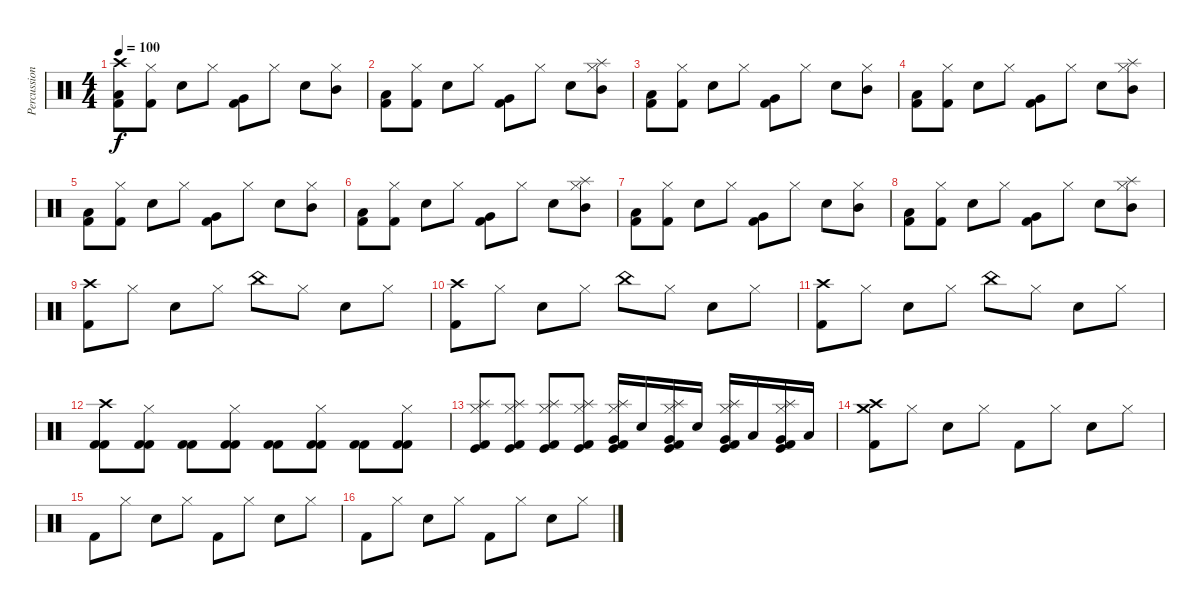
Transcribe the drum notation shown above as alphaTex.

\track ("Percussion" "Percussion") {instrument percussion}
\staff {score}
\articulation defaults
\ts (4 4)
\tempo 100
\clef neutral
\ks c
("Kick (hit) 2" "Low Tom (hit)" "Crash high (hit)").8{dy f} ("Kick (hit) 2" "Hi-Hat (closed)").8 "Electric Snare (hit)".8 "Hi-Hat (closed)".8 ("Kick (hit) 2" "Very Low Tom (hit)").8 "Hi-Hat (closed)".8 "Electric Snare (hit)".8 ("Mid Tom (hit)" "Hi-Hat (closed)").8 |
("Kick (hit) 2" "Low Tom (hit)").8 ("Kick (hit) 2" "Hi-Hat (closed)").8 "Electric Snare (hit)".8 "Hi-Hat (closed)".8 ("Kick (hit) 2" "Very Low Tom (hit)").8 "Hi-Hat (closed)".8 "Electric Snare (hit)".8 ("Mid Tom (hit)" "Hi-Hat (closed)" "Splash (hit)").8 |
("Kick (hit) 2" "Low Tom (hit)").8 ("Kick (hit) 2" "Hi-Hat (closed)").8 "Electric Snare (hit)".8 "Hi-Hat (closed)".8 ("Kick (hit) 2" "Very Low Tom (hit)").8 "Hi-Hat (closed)".8 "Electric Snare (hit)".8 ("Mid Tom (hit)" "Hi-Hat (closed)").8 |
("Kick (hit) 2" "Low Tom (hit)").8 ("Kick (hit) 2" "Hi-Hat (closed)").8 "Electric Snare (hit)".8 "Hi-Hat (closed)".8 ("Kick (hit) 2" "Very Low Tom (hit)").8 "Hi-Hat (closed)".8 "Electric Snare (hit)".8 ("Mid Tom (hit)" "Hi-Hat (closed)" "Splash (hit)").8 |
("Kick (hit) 2" "Low Tom (hit)").8 ("Kick (hit) 2" "Hi-Hat (closed)").8 "Electric Snare (hit)".8 "Hi-Hat (closed)".8 ("Kick (hit) 2" "Very Low Tom (hit)").8 "Hi-Hat (closed)".8 "Electric Snare (hit)".8 ("Mid Tom (hit)" "Hi-Hat (closed)").8 |
("Kick (hit) 2" "Low Tom (hit)").8 ("Kick (hit) 2" "Hi-Hat (closed)").8 "Electric Snare (hit)".8 "Hi-Hat (closed)".8 ("Kick (hit) 2" "Very Low Tom (hit)").8 "Hi-Hat (closed)".8 "Electric Snare (hit)".8 ("Mid Tom (hit)" "Hi-Hat (closed)" "Splash (hit)").8 |
("Kick (hit) 2" "Low Tom (hit)").8 ("Kick (hit) 2" "Hi-Hat (closed)").8 "Electric Snare (hit)".8 "Hi-Hat (closed)".8 ("Kick (hit) 2" "Very Low Tom (hit)").8 "Hi-Hat (closed)".8 "Electric Snare (hit)".8 ("Mid Tom (hit)" "Hi-Hat (closed)").8 |
("Kick (hit) 2" "Low Tom (hit)").8 ("Kick (hit) 2" "Hi-Hat (closed)").8 "Electric Snare (hit)".8 "Hi-Hat (closed)".8 ("Kick (hit) 2" "Very Low Tom (hit)").8 "Hi-Hat (closed)".8 "Electric Snare (hit)".8 ("Mid Tom (hit)" "Hi-Hat (closed)" "Splash (hit)").8 |
("Kick (hit) 2" "Crash high (hit)").8 "Hi-Hat (closed)".8 "Electric Snare (hit)".8 "Hi-Hat (closed)".8 "China (hit)".8 "Hi-Hat (closed)".8 "Electric Snare (hit)".8 "Hi-Hat (closed)".8 |
("Kick (hit) 2" "Crash high (hit)").8 "Hi-Hat (closed)".8 "Electric Snare (hit)".8 "Hi-Hat (closed)".8 "China (hit)".8 "Hi-Hat (closed)".8 "Electric Snare (hit)".8 "Hi-Hat (closed)".8 |
("Kick (hit) 2" "Crash high (hit)").8 "Hi-Hat (closed)".8 "Electric Snare (hit)".8 "Hi-Hat (closed)".8 "China (hit)".8 "Hi-Hat (closed)".8 "Electric Snare (hit)".8 "Hi-Hat (closed)".8 |
("Kick (hit) 2" "Kick (hit) 2" "Crash high (hit)").8 ("Kick (hit) 2" "Kick (hit) 2" "Hi-Hat (closed)").8 ("Kick (hit) 2" "Kick (hit) 2").8 ("Kick (hit) 2" "Kick (hit) 2" "Hi-Hat (closed)").8 ("Kick (hit) 2" "Kick (hit) 2").8 ("Kick (hit) 2" "Kick (hit) 2" "Hi-Hat (closed)").8 ("Kick (hit) 2" "Kick (hit) 2").8 ("Kick (hit) 2" "Kick (hit) 2" "Hi-Hat (closed)").8 |
("Kick (hit)" "Kick (hit) 2" "Hi-Hat (closed)" "Splash (hit)").8 ("Kick (hit)" "Kick (hit) 2" "Hi-Hat (closed)" "Splash (hit)").8 ("Kick (hit)" "Kick (hit) 2" "Hi-Hat (closed)" "Splash (hit)").8 ("Kick (hit)" "Kick (hit) 2" "Hi-Hat (closed)" "Splash (hit)").8 ("Kick (hit)" "Kick (hit) 2" "Hi-Hat (closed)" "Splash (hit)" "Very Low Tom (hit)").16 "Electric Snare (hit)".16 ("Kick (hit)" "Kick (hit) 2" "Hi-Hat (closed)" "Splash (hit)" "Very Low Tom (hit)").16 "Electric Snare (hit)".16 ("Kick (hit)" "Kick (hit) 2" "Hi-Hat (closed)" "Splash (hit)" "Very Low Tom (hit)").16 "Low Floor Tom (hit)".16 ("Kick (hit)" "Kick (hit) 2" "Hi-Hat (closed)" "Splash (hit)" "Very Low Tom (hit)").16 "Low Floor Tom (hit)".16 |
("Kick (hit) 2" "Crash high (hit)" "Crash medium (hit)").8 "Hi-Hat (closed)".8 "Electric Snare (hit)".8 "Hi-Hat (closed)".8 "Kick (hit) 2".8 "Hi-Hat (closed)".8 "Electric Snare (hit)".8 "Hi-Hat (closed)".8 |
"Kick (hit) 2".8 "Hi-Hat (closed)".8 "Electric Snare (hit)".8 "Hi-Hat (closed)".8 "Kick (hit) 2".8 "Hi-Hat (closed)".8 "Electric Snare (hit)".8 "Hi-Hat (closed)".8 |
"Kick (hit) 2".8 "Hi-Hat (closed)".8 "Electric Snare (hit)".8 "Hi-Hat (closed)".8 "Kick (hit) 2".8 "Hi-Hat (closed)".8 "Electric Snare (hit)".8 "Hi-Hat (closed)".8
